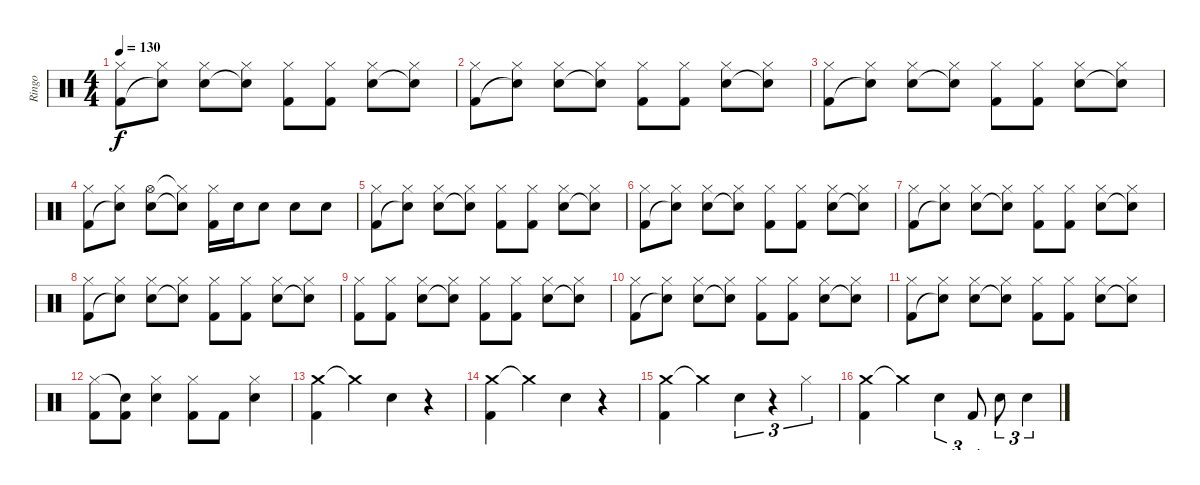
\track ("Ringo" "Ringo") {instrument percussion}
\staff {score}
\articulation defaults
\ts (4 4)
\tempo 130
\clef neutral
\ks c
("Hi-Hat (closed)" "Kick (hit) 2").8{dy f} ("Hi-Hat (closed)" "Snare (hit)"{t}).8 ("Hi-Hat (closed)" "Snare (hit) 2").8 ("Hi-Hat (closed)" "Snare (hit)"{t}).8 ("Hi-Hat (closed)" "Kick (hit) 2").8 ("Hi-Hat (closed)" "Kick (hit) 2").8 ("Hi-Hat (closed)" "Snare (hit) 2").8 ("Hi-Hat (closed)" "Snare (hit) 2"{t}).8 |
("Hi-Hat (closed)" "Kick (hit) 2").8 ("Hi-Hat (closed)" "Snare (hit)"{t}).8 ("Hi-Hat (closed)" "Snare (hit) 2").8 ("Hi-Hat (closed)" "Snare (hit)"{t}).8 ("Hi-Hat (closed)" "Kick (hit) 2").8 ("Hi-Hat (closed)" "Kick (hit) 2").8 ("Hi-Hat (closed)" "Snare (hit) 2").8 ("Hi-Hat (closed)" "Snare (hit) 2"{t}).8 |
("Hi-Hat (closed)" "Kick (hit) 2").8 ("Hi-Hat (closed)" "Snare (hit)"{t}).8 ("Hi-Hat (closed)" "Snare (hit) 2").8 ("Hi-Hat (closed)" "Snare (hit)"{t}).8 ("Hi-Hat (closed)" "Kick (hit) 2").8 ("Hi-Hat (closed)" "Kick (hit) 2").8 ("Hi-Hat (closed)" "Snare (hit) 2").8 ("Hi-Hat (closed)" "Snare (hit) 2"{t}).8 |
("Hi-Hat (closed)" "Kick (hit) 2").8 ("Hi-Hat (closed)" "Snare (hit)"{t}).8 ("Hi-Hat (open)" "Snare (hit) 2").8 ("Hi-Hat (closed)"{t} "Snare (hit)"{t}).8 ("Hi-Hat (closed)" "Kick (hit) 2").16 "Snare (hit) 2".16 "Snare (hit) 2".8 "Snare (hit) 2".8 "Snare (hit) 2".8 |
("Hi-Hat (closed)" "Kick (hit) 2").8 ("Hi-Hat (closed)" "Snare (hit)"{t}).8 ("Hi-Hat (closed)" "Snare (hit) 2").8 ("Hi-Hat (closed)" "Snare (hit)"{t}).8 ("Hi-Hat (closed)" "Kick (hit) 2").8 ("Hi-Hat (closed)" "Kick (hit) 2").8 ("Hi-Hat (closed)" "Snare (hit) 2").8 ("Hi-Hat (closed)" "Snare (hit) 2"{t}).8 |
("Hi-Hat (closed)" "Kick (hit) 2").8 ("Hi-Hat (closed)" "Snare (hit)"{t}).8 ("Hi-Hat (closed)" "Snare (hit) 2").8 ("Hi-Hat (closed)" "Snare (hit)"{t}).8 ("Hi-Hat (closed)" "Kick (hit) 2").8 ("Hi-Hat (closed)" "Kick (hit) 2").8 ("Hi-Hat (closed)" "Snare (hit) 2").8 ("Hi-Hat (closed)" "Snare (hit) 2"{t}).8 |
("Hi-Hat (closed)" "Kick (hit) 2").8 ("Hi-Hat (closed)" "Snare (hit)"{t}).8 ("Hi-Hat (closed)" "Snare (hit) 2").8 ("Hi-Hat (closed)" "Snare (hit)"{t}).8 ("Hi-Hat (closed)" "Kick (hit) 2").8 ("Hi-Hat (closed)" "Kick (hit) 2").8 ("Hi-Hat (closed)" "Snare (hit) 2").8 ("Hi-Hat (closed)" "Snare (hit) 2"{t}).8 |
("Hi-Hat (closed)" "Kick (hit) 2").8 ("Hi-Hat (closed)" "Snare (hit)"{t}).8 ("Hi-Hat (closed)" "Snare (hit) 2").8 ("Hi-Hat (closed)" "Snare (hit)"{t}).8 ("Hi-Hat (closed)" "Kick (hit) 2").8 ("Hi-Hat (closed)" "Kick (hit) 2").8 ("Hi-Hat (closed)" "Snare (hit) 2").8 ("Hi-Hat (closed)" "Snare (hit) 2"{t}).8 |
("Hi-Hat (closed)" "Kick (hit) 2").8 ("Hi-Hat (closed)" "Kick (hit) 2").8 ("Hi-Hat (closed)" "Snare (hit) 2").8 ("Hi-Hat (closed)" "Snare (hit)"{t}).8 ("Hi-Hat (closed)" "Kick (hit) 2").8 ("Hi-Hat (closed)" "Kick (hit) 2").8 ("Hi-Hat (closed)" "Snare (hit) 2").8 ("Hi-Hat (closed)" "Snare (hit) 2"{t}).8 |
("Hi-Hat (closed)" "Kick (hit) 2").8 ("Hi-Hat (closed)" "Snare (hit)"{t}).8 ("Hi-Hat (closed)" "Snare (hit) 2").8 ("Hi-Hat (closed)" "Snare (hit)"{t}).8 ("Hi-Hat (closed)" "Kick (hit) 2").8 ("Hi-Hat (closed)" "Kick (hit) 2").8 ("Hi-Hat (closed)" "Snare (hit) 2").8 ("Hi-Hat (closed)" "Snare (hit) 2"{t}).8 |
("Hi-Hat (closed)" "Kick (hit) 2").8 ("Hi-Hat (closed)" "Snare (hit)"{t}).8 ("Hi-Hat (closed)" "Snare (hit) 2").8 ("Hi-Hat (closed)" "Snare (hit)"{t}).8 ("Hi-Hat (closed)" "Kick (hit) 2").8 ("Hi-Hat (closed)" "Kick (hit) 2").8 ("Hi-Hat (closed)" "Snare (hit) 2").8 ("Hi-Hat (closed)" "Snare (hit) 2"{t}).8 |
("Hi-Hat (closed)" "Kick (hit) 2").8 ("Snare (hit)"{t} "Kick (hit) 2").8 ("Hi-Hat (closed)" "Snare (hit) 2").4 ("Hi-Hat (closed)" "Kick (hit) 2").8 "Kick (hit) 2".8 ("Hi-Hat (closed)" "Snare (hit) 2").4 |
("Crash medium (hit)" "Kick (hit) 2").4 "Crash medium (hit)"{t}.4 "Snare (hit) 2".4 r.4 |
("Crash medium (hit)" "Kick (hit) 2").4 "Crash medium (hit)"{t}.4 "Snare (hit) 2".4 r.4 |
("Crash medium (hit)" "Kick (hit) 2").4 "Crash medium (hit)"{t}.4 "Snare (hit) 2".4{tu (3 2)} r.4{tu (3 2)} "Hi-Hat (closed)".4{tu (3 2)} |
("Crash medium (hit)" "Kick (hit) 2").4 "Crash medium (hit)"{t}.4 "Snare (hit) 2".4{tu (3 2)} "Kick (hit) 2".8{tu (3 2)} "Snare (hit) 2".8{tu (3 2)} "Snare (hit) 2".4{tu (3 2)}
